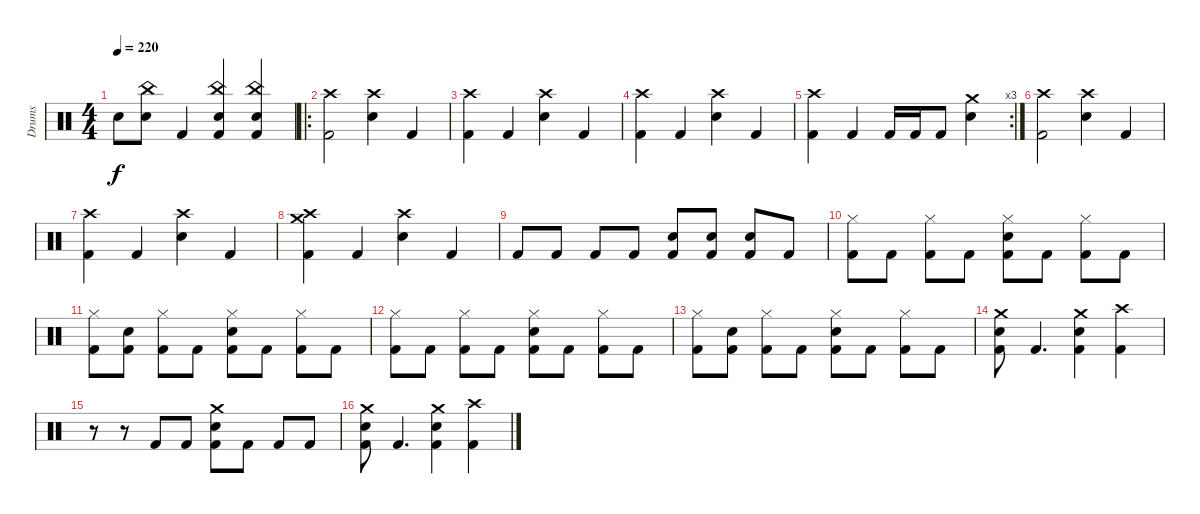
\track ("Drums" "Drums") {instrument percussion}
\staff {score}
\articulation defaults
\ts (4 4)
\tempo 220
\clef neutral
\ks c "Snare (hit)"{t}.8{dy f}
("China (hit)" "Snare (hit) 2").8 "Kick (hit) 2".4 ("China (hit)" "Snare (hit) 2" "Kick (hit) 2").4 ("China (hit)" "Snare (hit) 2" "Kick (hit) 2").4 |
\ro
("Crash high (hit)" "Kick (hit) 2").2 ("Crash high (hit)" "Snare (hit) 2").4 "Kick (hit) 2".4 |
("Crash high (hit)" "Kick (hit) 2").4 "Kick (hit) 2".4 ("Crash high (hit)" "Snare (hit) 2").4 "Kick (hit) 2".4 |
("Crash high (hit)" "Kick (hit) 2").4 "Kick (hit) 2".4 ("Crash high (hit)" "Snare (hit) 2").4 "Kick (hit) 2".4 |
\rc 3
("Crash high (hit)" "Kick (hit) 2").4 "Kick (hit) 2".4 "Kick (hit) 2".16 "Kick (hit) 2".16 "Kick (hit) 2".8 ("Crash medium (hit)" "Snare (hit) 2").4 |
("Crash high (hit)" "Kick (hit) 2").2 ("Crash high (hit)" "Snare (hit) 2").4 "Kick (hit) 2".4 |
("Crash high (hit)" "Kick (hit) 2").4 "Kick (hit) 2".4 ("Crash high (hit)" "Snare (hit) 2").4 "Kick (hit) 2".4 |
("Crash high (hit)" "Crash medium (hit)" "Kick (hit) 2").4 "Kick (hit) 2".4 ("Crash high (hit)" "Snare (hit) 2").4 "Kick (hit) 2".4 |
"Kick (hit) 2".8 "Kick (hit) 2".8 "Kick (hit) 2".8 "Kick (hit) 2".8 ("Snare (hit) 2" "Kick (hit) 2").8 ("Snare (hit) 2" "Kick (hit) 2").8 ("Snare (hit) 2" "Kick (hit) 2").8 "Kick (hit) 2".8 |
("Hi-Hat (closed)" "Kick (hit) 2").8 "Kick (hit) 2".8 ("Hi-Hat (closed)" "Kick (hit) 2").8 "Kick (hit) 2".8 ("Hi-Hat (closed)" "Snare (hit) 2" "Kick (hit) 2").8 "Kick (hit) 2".8 ("Hi-Hat (closed)" "Kick (hit) 2").8 "Kick (hit) 2".8 |
("Hi-Hat (closed)" "Kick (hit) 2").8 ("Snare (hit) 2" "Kick (hit) 2").8 ("Hi-Hat (closed)" "Kick (hit) 2").8 "Kick (hit) 2".8 ("Hi-Hat (closed)" "Snare (hit) 2" "Kick (hit) 2").8 "Kick (hit) 2".8 ("Hi-Hat (closed)" "Kick (hit) 2").8 "Kick (hit) 2".8 |
("Hi-Hat (closed)" "Kick (hit) 2").8 "Kick (hit) 2".8 ("Hi-Hat (closed)" "Kick (hit) 2").8 "Kick (hit) 2".8 ("Hi-Hat (closed)" "Snare (hit) 2" "Kick (hit) 2").8 "Kick (hit) 2".8 ("Hi-Hat (closed)" "Kick (hit) 2").8 "Kick (hit) 2".8 |
("Hi-Hat (closed)" "Kick (hit) 2").8 ("Snare (hit) 2" "Kick (hit) 2").8 ("Hi-Hat (closed)" "Kick (hit) 2").8 "Kick (hit) 2".8 ("Hi-Hat (closed)" "Snare (hit) 2" "Kick (hit) 2").8 "Kick (hit) 2".8 ("Hi-Hat (closed)" "Kick (hit) 2").8 "Kick (hit) 2".8 |
("Crash medium (hit)" "Snare (hit) 2" "Kick (hit) 2").8 "Kick (hit) 2".4{d} ("Crash medium (hit)" "Snare (hit) 2" "Kick (hit) 2").4 ("Crash high (hit)" "Kick (hit) 2").4 |
r.8 r.8 "Kick (hit) 2".8 "Kick (hit) 2".8 ("Crash medium (hit)" "Snare (hit) 2" "Kick (hit) 2").8 "Kick (hit) 2".8 "Kick (hit) 2".8 "Kick (hit) 2".8 |
("Crash medium (hit)" "Snare (hit) 2" "Kick (hit) 2").8 "Kick (hit) 2".4{d} ("Crash medium (hit)" "Snare (hit) 2" "Kick (hit) 2").4 ("Crash high (hit)" "Kick (hit) 2").4
